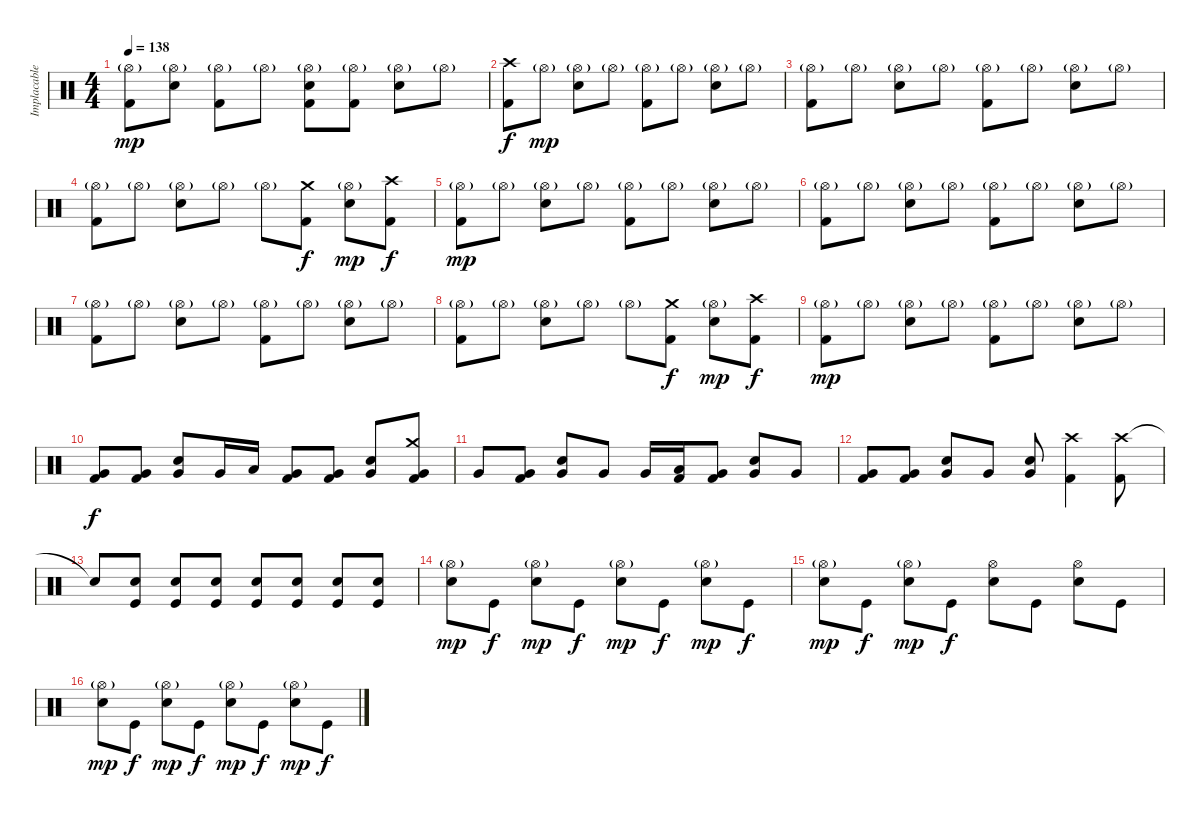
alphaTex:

\track ("Implacable Gonzalez" "Implacable") {instrument percussion}
\staff {score}
\articulation defaults
\ts (4 4)
\tempo 138
\clef neutral
\ks c
("Hi-Hat (open)"{g} "Kick (hit) 2").8{dy mp} ("Hi-Hat (open)"{g} "Snare (hit) 2").8 ("Hi-Hat (open)"{g} "Kick (hit) 2").8 "Hi-Hat (open)"{g}.8 ("Hi-Hat (open)"{g} "Snare (hit) 2" "Kick (hit) 2").8 ("Hi-Hat (open)"{g} "Kick (hit) 2").8 ("Hi-Hat (open)"{g} "Snare (hit) 2").8 "Hi-Hat (open)"{g}.8 |
("Crash high (hit)" "Kick (hit) 2").8{dy f} "Hi-Hat (open)"{g}.8{dy mp} ("Hi-Hat (open)"{g} "Snare (hit) 2").8 "Hi-Hat (open)"{g}.8 ("Hi-Hat (open)"{g} "Kick (hit) 2").8 "Hi-Hat (open)"{g}.8 ("Hi-Hat (open)"{g} "Snare (hit) 2").8 "Hi-Hat (open)"{g}.8 |
("Hi-Hat (open)"{g} "Kick (hit) 2").8 "Hi-Hat (open)"{g}.8 ("Hi-Hat (open)"{g} "Snare (hit) 2").8 "Hi-Hat (open)"{g}.8 ("Hi-Hat (open)"{g} "Kick (hit) 2").8 "Hi-Hat (open)"{g}.8 ("Hi-Hat (open)"{g} "Snare (hit) 2").8 "Hi-Hat (open)"{g}.8 |
("Hi-Hat (open)"{g} "Kick (hit) 2").8 "Hi-Hat (open)"{g}.8 ("Hi-Hat (open)"{g} "Snare (hit) 2").8 "Hi-Hat (open)"{g}.8 "Hi-Hat (open)"{g}.8 ("Crash medium (hit)" "Kick (hit) 2").8{dy f} ("Hi-Hat (open)"{g} "Snare (hit) 2").8{dy mp} ("Crash high (hit)" "Kick (hit) 2").8{dy f} |
("Hi-Hat (open)"{g} "Kick (hit) 2").8{dy mp} "Hi-Hat (open)"{g}.8 ("Hi-Hat (open)"{g} "Snare (hit) 2").8 "Hi-Hat (open)"{g}.8 ("Hi-Hat (open)"{g} "Kick (hit) 2").8 "Hi-Hat (open)"{g}.8 ("Hi-Hat (open)"{g} "Snare (hit) 2").8 "Hi-Hat (open)"{g}.8 |
("Hi-Hat (open)"{g} "Kick (hit) 2").8 "Hi-Hat (open)"{g}.8 ("Hi-Hat (open)"{g} "Snare (hit) 2").8 "Hi-Hat (open)"{g}.8 ("Hi-Hat (open)"{g} "Kick (hit) 2").8 "Hi-Hat (open)"{g}.8 ("Hi-Hat (open)"{g} "Snare (hit) 2").8 "Hi-Hat (open)"{g}.8 |
("Hi-Hat (open)"{g} "Kick (hit) 2").8 "Hi-Hat (open)"{g}.8 ("Hi-Hat (open)"{g} "Snare (hit) 2").8 "Hi-Hat (open)"{g}.8 ("Hi-Hat (open)"{g} "Kick (hit) 2").8 "Hi-Hat (open)"{g}.8 ("Hi-Hat (open)"{g} "Snare (hit) 2").8 "Hi-Hat (open)"{g}.8 |
("Hi-Hat (open)"{g} "Kick (hit) 2").8 "Hi-Hat (open)"{g}.8 ("Hi-Hat (open)"{g} "Snare (hit) 2").8 "Hi-Hat (open)"{g}.8 "Hi-Hat (open)"{g}.8 ("Crash medium (hit)" "Kick (hit) 2").8{dy f} ("Hi-Hat (open)"{g} "Snare (hit) 2").8{dy mp} ("Crash high (hit)" "Kick (hit) 2").8{dy f} |
("Hi-Hat (open)"{g} "Kick (hit) 2").8{dy mp} "Hi-Hat (open)"{g}.8 ("Hi-Hat (open)"{g} "Snare (hit) 2").8 "Hi-Hat (open)"{g}.8 ("Hi-Hat (open)"{g} "Kick (hit) 2").8 "Hi-Hat (open)"{g}.8 ("Hi-Hat (open)"{g} "Snare (hit) 2").8 "Hi-Hat (open)"{g}.8 |
("Very Low Tom (hit)" "Kick (hit) 2").8{dy f} ("Very Low Tom (hit)" "Kick (hit) 2").8 ("Snare (hit) 2" "Very Low Tom (hit)").8 "Very Low Tom (hit)".16 "Low Tom (hit)".16 ("Very Low Tom (hit)" "Kick (hit) 2").8 ("Very Low Tom (hit)" "Kick (hit) 2").8 ("Snare (hit) 2" "Very Low Tom (hit)").8 ("Crash medium (hit)" "Very Low Tom (hit)" "Kick (hit) 2").8 |
"Very Low Tom (hit)".8 ("Very Low Tom (hit)" "Kick (hit) 2").8 ("Snare (hit) 2" "Very Low Tom (hit)").8 "Very Low Tom (hit)".8 "Very Low Tom (hit)".16 ("Low Tom (hit)" "Kick (hit) 2").16 ("Very Low Tom (hit)" "Kick (hit) 2").8 ("Snare (hit) 2" "Very Low Tom (hit)").8 "Very Low Tom (hit)".8 |
("Very Low Tom (hit)" "Kick (hit) 2").8 ("Very Low Tom (hit)" "Kick (hit) 2").8 ("Snare (hit) 2" "Very Low Tom (hit)").8 "Very Low Tom (hit)".8 ("Snare (hit) 2" "Very Low Tom (hit)").8 ("Crash high (hit)" "Kick (hit) 2").4 ("Crash high (hit)" "Kick (hit) 2").8 |
"Snare (hit)"{t}.8 ("Snare (hit) 2" "Kick (hit)").8 ("Snare (hit) 2" "Kick (hit)").8 ("Snare (hit) 2" "Kick (hit)").8 ("Snare (hit) 2" "Kick (hit)").8 ("Snare (hit) 2" "Kick (hit)").8 ("Snare (hit) 2" "Kick (hit)").8 ("Snare (hit) 2" "Kick (hit)").8 |
("Hi-Hat (open)"{g} "Snare (hit) 2").8{dy mp} "Kick (hit)".8{dy f} ("Hi-Hat (open)"{g} "Snare (hit) 2").8{dy mp} "Kick (hit)".8{dy f} ("Hi-Hat (open)"{g} "Snare (hit) 2").8{dy mp} "Kick (hit)".8{dy f} ("Hi-Hat (open)"{g} "Snare (hit) 2").8{dy mp} "Kick (hit)".8{dy f} |
("Hi-Hat (open)"{g} "Snare (hit) 2").8{dy mp} "Kick (hit)".8{dy f} ("Hi-Hat (open)"{g} "Snare (hit) 2").8{dy mp} "Kick (hit)".8{dy f} ("Hi-Hat (open)" "Snare (hit) 2").8 "Kick (hit)".8 ("Hi-Hat (open)" "Snare (hit) 2").8 "Kick (hit)".8 |
("Hi-Hat (open)"{g} "Snare (hit) 2").8{dy mp} "Kick (hit)".8{dy f} ("Hi-Hat (open)"{g} "Snare (hit) 2").8{dy mp} "Kick (hit)".8{dy f} ("Hi-Hat (open)"{g} "Snare (hit) 2").8{dy mp} "Kick (hit)".8{dy f} ("Hi-Hat (open)"{g} "Snare (hit) 2").8{dy mp} "Kick (hit)".8{dy f}
